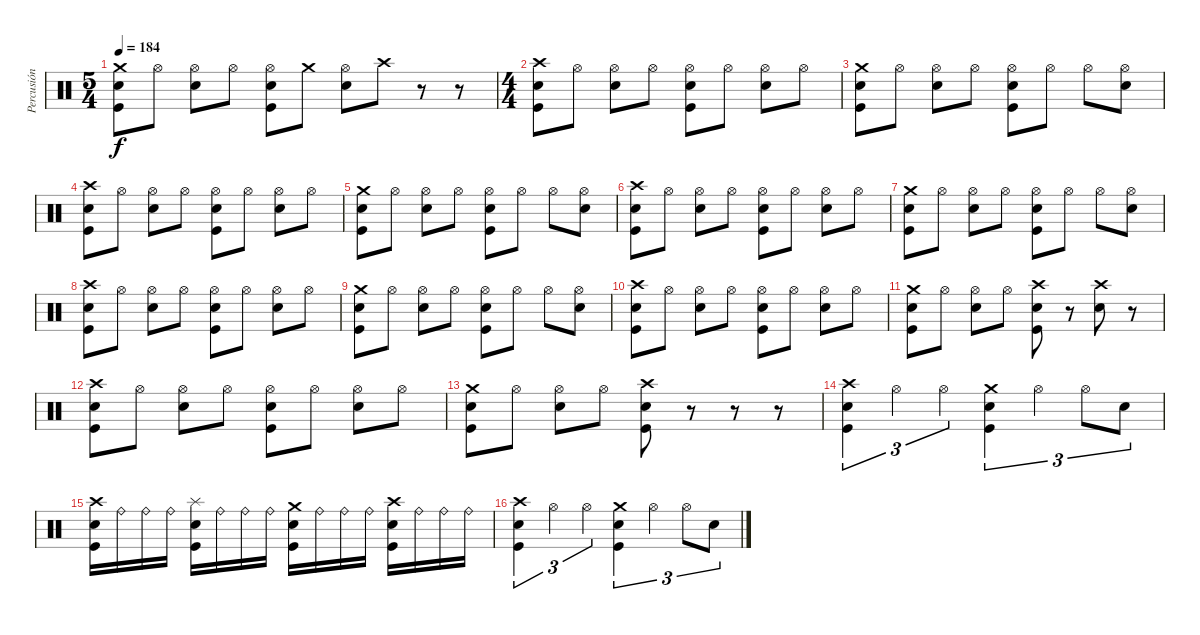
\track ("Percusión" "Percusión") {instrument percussion}
\staff {score}
\articulation defaults
\ts (5 4)
\tempo 184
\clef neutral
\ks c
("Crash medium (hit)" "Electric Snare (hit)" "Kick (hit)").8{dy f} "Hi-Hat (open)".8 ("Hi-Hat (open)" "Electric Snare (hit)").8 "Hi-Hat (open)".8 ("Hi-Hat (open)" "Electric Snare (hit)" "Kick (hit)").8 "Crash medium (hit)".8 ("Hi-Hat (open)" "Electric Snare (hit)").8 "Crash high (hit)".8 r.8 r.8 |
\ts (4 4)
("Crash high (hit)" "Electric Snare (hit)" "Kick (hit)").8 "Hi-Hat (open)".8 ("Hi-Hat (open)" "Electric Snare (hit)").8 "Hi-Hat (open)".8 ("Hi-Hat (open)" "Electric Snare (hit)" "Kick (hit)").8 "Hi-Hat (open)".8 ("Hi-Hat (open)" "Electric Snare (hit)").8 "Hi-Hat (open)".8 |
("Crash medium (hit)" "Electric Snare (hit)" "Kick (hit)").8 "Hi-Hat (open)".8 ("Hi-Hat (open)" "Electric Snare (hit)").8 "Hi-Hat (open)".8 ("Hi-Hat (open)" "Electric Snare (hit)" "Kick (hit)").8 "Hi-Hat (open)".8 "Hi-Hat (open)".8 ("Hi-Hat (open)" "Electric Snare (hit)").8 |
("Crash high (hit)" "Electric Snare (hit)" "Kick (hit)").8 "Hi-Hat (open)".8 ("Hi-Hat (open)" "Electric Snare (hit)").8 "Hi-Hat (open)".8 ("Hi-Hat (open)" "Electric Snare (hit)" "Kick (hit)").8 "Hi-Hat (open)".8 ("Hi-Hat (open)" "Electric Snare (hit)").8 "Hi-Hat (open)".8 |
("Crash medium (hit)" "Electric Snare (hit)" "Kick (hit)").8 "Hi-Hat (open)".8 ("Hi-Hat (open)" "Electric Snare (hit)").8 "Hi-Hat (open)".8 ("Hi-Hat (open)" "Electric Snare (hit)" "Kick (hit)").8 "Hi-Hat (open)".8 "Hi-Hat (open)".8 ("Hi-Hat (open)" "Electric Snare (hit)").8 |
("Crash high (hit)" "Electric Snare (hit)" "Kick (hit)").8 "Hi-Hat (open)".8 ("Hi-Hat (open)" "Electric Snare (hit)").8 "Hi-Hat (open)".8 ("Hi-Hat (open)" "Electric Snare (hit)" "Kick (hit)").8 "Hi-Hat (open)".8 ("Hi-Hat (open)" "Electric Snare (hit)").8 "Hi-Hat (open)".8 |
("Crash medium (hit)" "Electric Snare (hit)" "Kick (hit)").8 "Hi-Hat (open)".8 ("Hi-Hat (open)" "Electric Snare (hit)").8 "Hi-Hat (open)".8 ("Hi-Hat (open)" "Electric Snare (hit)" "Kick (hit)").8 "Hi-Hat (open)".8 "Hi-Hat (open)".8 ("Hi-Hat (open)" "Electric Snare (hit)").8 |
("Crash high (hit)" "Electric Snare (hit)" "Kick (hit)").8 "Hi-Hat (open)".8 ("Hi-Hat (open)" "Electric Snare (hit)").8 "Hi-Hat (open)".8 ("Hi-Hat (open)" "Electric Snare (hit)" "Kick (hit)").8 "Hi-Hat (open)".8 ("Hi-Hat (open)" "Electric Snare (hit)").8 "Hi-Hat (open)".8 |
("Crash medium (hit)" "Electric Snare (hit)" "Kick (hit)").8 "Hi-Hat (open)".8 ("Hi-Hat (open)" "Electric Snare (hit)").8 "Hi-Hat (open)".8 ("Hi-Hat (open)" "Electric Snare (hit)" "Kick (hit)").8 "Hi-Hat (open)".8 "Hi-Hat (open)".8 ("Hi-Hat (open)" "Electric Snare (hit)").8 |
("Crash high (hit)" "Electric Snare (hit)" "Kick (hit)").8 "Hi-Hat (open)".8 ("Hi-Hat (open)" "Electric Snare (hit)").8 "Hi-Hat (open)".8 ("Hi-Hat (open)" "Electric Snare (hit)" "Kick (hit)").8 "Hi-Hat (open)".8 ("Hi-Hat (open)" "Electric Snare (hit)").8 "Hi-Hat (open)".8 |
("Crash medium (hit)" "Electric Snare (hit)" "Kick (hit)").8 "Hi-Hat (open)".8 ("Hi-Hat (open)" "Electric Snare (hit)").8 "Hi-Hat (open)".8 ("Crash high (hit)" "Electric Snare (hit)" "Kick (hit)").8 r.8 ("Crash high (hit)" "Electric Snare (hit)").8 r.8 |
("Crash high (hit)" "Electric Snare (hit)" "Kick (hit)").8 "Hi-Hat (open)".8 ("Hi-Hat (open)" "Electric Snare (hit)").8 "Hi-Hat (open)".8 ("Hi-Hat (open)" "Electric Snare (hit)" "Kick (hit)").8 "Hi-Hat (open)".8 ("Hi-Hat (open)" "Electric Snare (hit)").8 "Hi-Hat (open)".8 |
("Crash medium (hit)" "Electric Snare (hit)" "Kick (hit)").8 "Hi-Hat (open)".8 ("Hi-Hat (open)" "Electric Snare (hit)").8 "Hi-Hat (open)".8 ("Crash high (hit)" "Electric Snare (hit)" "Kick (hit)").8 r.8 r.8 r.8 |
("Crash high (hit)" "Electric Snare (hit)" "Kick (hit)").4{tu (3 2)} "Hi-Hat (open)".4{tu (3 2)} "Hi-Hat (open)".4{tu (3 2)} ("Crash medium (hit)" "Electric Snare (hit)" "Kick (hit)").4{tu (3 2)} "Hi-Hat (open)".4{tu (3 2)} "Hi-Hat (open)".8{tu (3 2)} "Electric Snare (hit)".8{tu (3 2)} |
("Crash high (hit)" "Electric Snare (hit)" "Kick (hit)").16 "Ride (bell)".16 "Ride (bell)".16 "Ride (bell)".16 ("Splash (hit)" "Electric Snare (hit)" "Kick (hit)").16 "Ride (bell)".16 "Ride (bell)".16 "Ride (bell)".16 ("Crash medium (hit)" "Electric Snare (hit)" "Kick (hit)").16 "Ride (bell)".16 "Ride (bell)".16 "Ride (bell)".16 ("Crash high (hit)" "Electric Snare (hit)" "Kick (hit)").16 "Ride (bell)".16 "Ride (bell)".16 "Ride (bell)".16 |
("Crash high (hit)" "Electric Snare (hit)" "Kick (hit)").4{tu (3 2)} "Hi-Hat (open)".4{tu (3 2)} "Hi-Hat (open)".4{tu (3 2)} ("Crash medium (hit)" "Electric Snare (hit)" "Kick (hit)").4{tu (3 2)} "Hi-Hat (open)".4{tu (3 2)} "Hi-Hat (open)".8{tu (3 2)} "Electric Snare (hit)".8{tu (3 2)}
